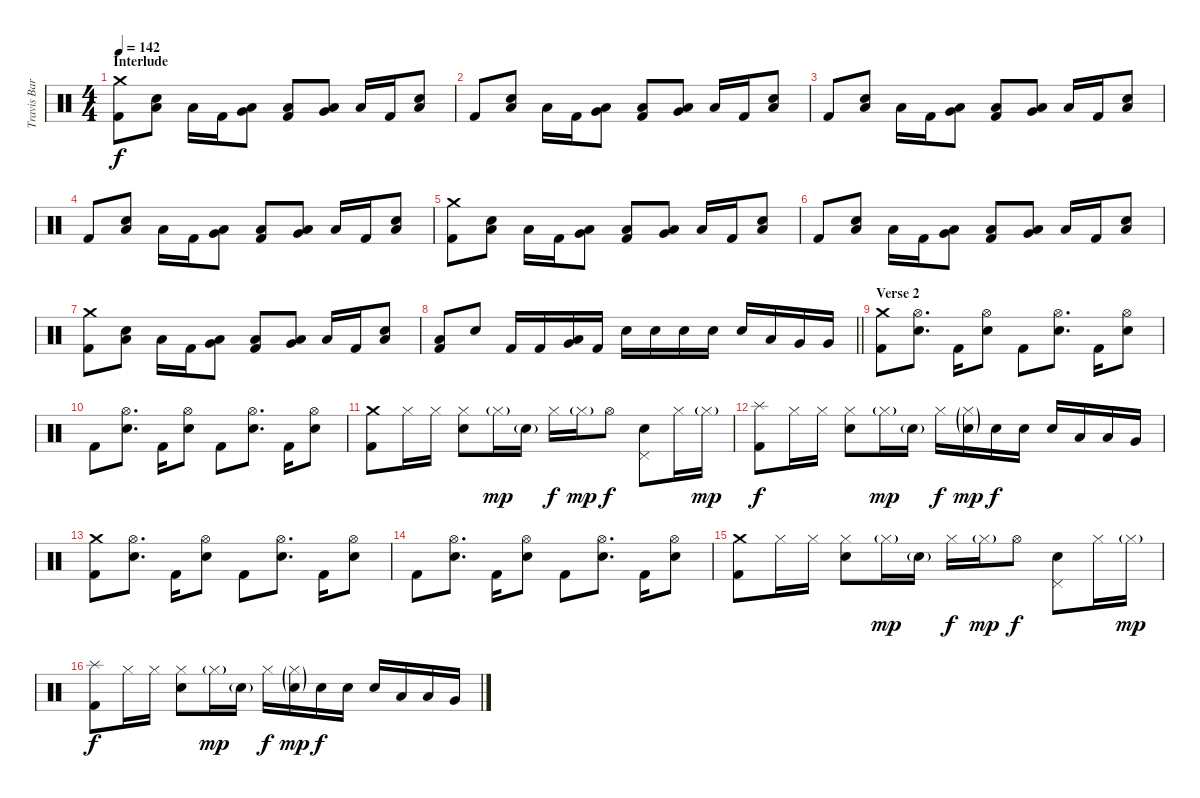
\track ("Travis Barker - Drums" "Travis Bar") {instrument percussion}
\staff {score}
\articulation defaults
\ts (4 4)
\section ("" "Interlude")
\tempo 142
\clef neutral
\ks c
("Crash medium (hit)" "Kick (hit) 2").8{dy f} ("Low Floor Tom (hit)" "Electric Snare (hit)").8 "Low Floor Tom (hit)".16{beam Down} "Kick (hit) 2".16{beam Down} ("Low Tom (hit)" "Very Low Tom (hit)").8{beam Down} ("Low Floor Tom (hit)" "Kick (hit) 2").8 ("Low Tom (hit)" "Very Low Tom (hit)").8 "Low Floor Tom (hit)".16 "Kick (hit) 2".16 ("Electric Snare (hit)" "Low Floor Tom (hit)").8 |
"Kick (hit) 2".8 ("Low Floor Tom (hit)" "Electric Snare (hit)").8 "Low Floor Tom (hit)".16{beam Down} "Kick (hit) 2".16{beam Down} ("Low Tom (hit)" "Very Low Tom (hit)").8{beam Down} ("Low Floor Tom (hit)" "Kick (hit) 2").8 ("Low Tom (hit)" "Very Low Tom (hit)").8 "Low Floor Tom (hit)".16 "Kick (hit) 2".16 ("Electric Snare (hit)" "Low Floor Tom (hit)").8 |
"Kick (hit) 2".8 ("Low Floor Tom (hit)" "Electric Snare (hit)").8 "Low Floor Tom (hit)".16{beam Down} "Kick (hit) 2".16{beam Down} ("Low Tom (hit)" "Very Low Tom (hit)").8{beam Down} ("Low Floor Tom (hit)" "Kick (hit) 2").8 ("Low Tom (hit)" "Very Low Tom (hit)").8 "Low Floor Tom (hit)".16 "Kick (hit) 2".16 ("Electric Snare (hit)" "Low Floor Tom (hit)").8 |
"Kick (hit) 2".8 ("Low Floor Tom (hit)" "Electric Snare (hit)").8 "Low Floor Tom (hit)".16{beam Down} "Kick (hit) 2".16{beam Down} ("Low Tom (hit)" "Very Low Tom (hit)").8{beam Down} ("Low Floor Tom (hit)" "Kick (hit) 2").8 ("Low Tom (hit)" "Very Low Tom (hit)").8 "Low Floor Tom (hit)".16 "Kick (hit) 2".16 ("Electric Snare (hit)" "Low Floor Tom (hit)").8 |
("Crash medium (hit)" "Kick (hit) 2").8 ("Low Floor Tom (hit)" "Electric Snare (hit)").8 "Low Floor Tom (hit)".16{beam Down} "Kick (hit) 2".16{beam Down} ("Low Tom (hit)" "Very Low Tom (hit)").8{beam Down} ("Low Floor Tom (hit)" "Kick (hit) 2").8 ("Low Tom (hit)" "Very Low Tom (hit)").8 "Low Floor Tom (hit)".16 "Kick (hit) 2".16 ("Electric Snare (hit)" "Low Floor Tom (hit)").8 |
"Kick (hit) 2".8 ("Low Floor Tom (hit)" "Electric Snare (hit)").8 "Low Floor Tom (hit)".16{beam Down} "Kick (hit) 2".16{beam Down} ("Low Tom (hit)" "Very Low Tom (hit)").8{beam Down} ("Low Floor Tom (hit)" "Kick (hit) 2").8 ("Low Tom (hit)" "Very Low Tom (hit)").8 "Low Floor Tom (hit)".16 "Kick (hit) 2".16 ("Electric Snare (hit)" "Low Floor Tom (hit)").8 |
("Crash medium (hit)" "Kick (hit) 2").8 ("Low Floor Tom (hit)" "Electric Snare (hit)").8 "Low Floor Tom (hit)".16{beam Down} "Kick (hit) 2".16{beam Down} ("Low Tom (hit)" "Very Low Tom (hit)").8{beam Down} ("Low Floor Tom (hit)" "Kick (hit) 2").8 ("Low Tom (hit)" "Very Low Tom (hit)").8 "Low Floor Tom (hit)".16 "Kick (hit) 2".16 ("Electric Snare (hit)" "Low Floor Tom (hit)").8 |
\barLineRight lightlight
("Low Floor Tom (hit)" "Kick (hit) 2").8 "Electric Snare (hit)".8 "Kick (hit) 2".16 "Kick (hit) 2".16 ("Low Tom (hit)" "Very Low Tom (hit)").16 "Kick (hit) 2".16 "Electric Snare (hit)".16 "Electric Snare (hit)".16 "Electric Snare (hit)".16 "Electric Snare (hit)".16 "Electric Snare (hit)".16 "Low Tom (hit)".16 "Very Low Tom (hit)".16 "Very Low Tom (hit)".16 |
\section ("" "Verse 2")
("Crash medium (hit)" "Kick (hit) 2").8 ("Hi-Hat (open)" "Electric Snare (hit)").8{d} "Kick (hit) 2".16 ("Hi-Hat (open)" "Electric Snare (hit)").8 "Kick (hit) 2".8 ("Hi-Hat (open)" "Electric Snare (hit)").8{d} "Kick (hit) 2".16 ("Hi-Hat (open)" "Electric Snare (hit)").8 |
"Kick (hit) 2".8 ("Hi-Hat (open)" "Electric Snare (hit)").8{d} "Kick (hit) 2".16 ("Hi-Hat (open)" "Electric Snare (hit)").8 "Kick (hit) 2".8 ("Hi-Hat (open)" "Electric Snare (hit)").8{d} "Kick (hit) 2".16 ("Hi-Hat (open)" "Electric Snare (hit)").8 |
("Crash medium (hit)" "Kick (hit) 2").8 "Hi-Hat (closed)".16 "Hi-Hat (closed)".16 ("Hi-Hat (closed)" "Electric Snare (hit)").8 "Hi-Hat (closed)"{g}.16{dy mp} "Electric Snare (hit)"{g}.16 "Hi-Hat (closed)".16{dy f} "Hi-Hat (closed)"{g}.16{dy mp} "Hi-Hat (open)".8{dy f} ("Pedal Hi-Hat (hit)" "Electric Snare (hit)").8 "Hi-Hat (closed)".16 "Hi-Hat (closed)"{g}.16{dy mp} |
("Splash (hit)" "Kick (hit) 2").8{dy f} "Hi-Hat (closed)".16 "Hi-Hat (closed)".16 ("Hi-Hat (closed)" "Electric Snare (hit)").8 "Hi-Hat (closed)"{g}.16{dy mp} "Electric Snare (hit)"{g}.16 "Hi-Hat (closed)".16{dy f} ("Hi-Hat (closed)"{g} "Electric Snare (hit)"{g}).16{dy mp} "Electric Snare (hit)".16{dy f} "Electric Snare (hit)".16 "Electric Snare (hit)".16 "Low Tom (hit)".16 "Low Tom (hit)".16 "Very Low Tom (hit)".16 |
("Crash medium (hit)" "Kick (hit) 2").8 ("Hi-Hat (open)" "Electric Snare (hit)").8{d} "Kick (hit) 2".16 ("Hi-Hat (open)" "Electric Snare (hit)").8 "Kick (hit) 2".8 ("Hi-Hat (open)" "Electric Snare (hit)").8{d} "Kick (hit) 2".16 ("Hi-Hat (open)" "Electric Snare (hit)").8 |
"Kick (hit) 2".8 ("Hi-Hat (open)" "Electric Snare (hit)").8{d} "Kick (hit) 2".16 ("Hi-Hat (open)" "Electric Snare (hit)").8 "Kick (hit) 2".8 ("Hi-Hat (open)" "Electric Snare (hit)").8{d} "Kick (hit) 2".16 ("Hi-Hat (open)" "Electric Snare (hit)").8 |
("Crash medium (hit)" "Kick (hit) 2").8 "Hi-Hat (closed)".16 "Hi-Hat (closed)".16 ("Hi-Hat (closed)" "Electric Snare (hit)").8 "Hi-Hat (closed)"{g}.16{dy mp} "Electric Snare (hit)"{g}.16 "Hi-Hat (closed)".16{dy f} "Hi-Hat (closed)"{g}.16{dy mp} "Hi-Hat (open)".8{dy f} ("Pedal Hi-Hat (hit)" "Electric Snare (hit)").8 "Hi-Hat (closed)".16 "Hi-Hat (closed)"{g}.16{dy mp} |
("Splash (hit)" "Kick (hit) 2").8{dy f} "Hi-Hat (closed)".16 "Hi-Hat (closed)".16 ("Hi-Hat (closed)" "Electric Snare (hit)").8 "Hi-Hat (closed)"{g}.16{dy mp} "Electric Snare (hit)"{g}.16 "Hi-Hat (closed)".16{dy f} ("Hi-Hat (closed)"{g} "Electric Snare (hit)"{g}).16{dy mp} "Electric Snare (hit)".16{dy f} "Electric Snare (hit)".16 "Electric Snare (hit)".16 "Low Tom (hit)".16 "Low Tom (hit)".16 "Very Low Tom (hit)".16
